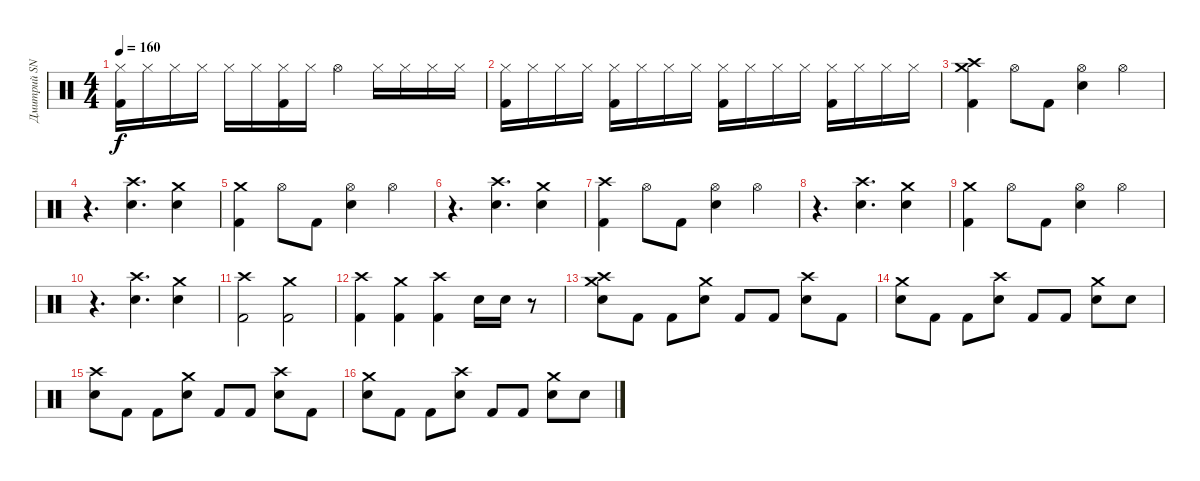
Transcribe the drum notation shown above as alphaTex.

\track ("Дмитрий SNAKE Хакимов" "Дмитрий SN") {instrument percussion}
\staff {score}
\articulation defaults
\ts (4 4)
\tempo 160
\clef neutral
\ks c
("Hi-Hat (closed)" "Kick (hit) 2").16{dy f} "Hi-Hat (closed)".16 "Hi-Hat (closed)".16 "Hi-Hat (closed)".16 "Hi-Hat (closed)".16 "Hi-Hat (closed)".16 ("Hi-Hat (closed)" "Kick (hit) 2").16 "Hi-Hat (closed)".16 "Hi-Hat (open)".4 "Hi-Hat (closed)".16 "Hi-Hat (closed)".16 "Hi-Hat (closed)".16 "Hi-Hat (closed)".16 |
("Hi-Hat (closed)" "Kick (hit) 2").16 "Hi-Hat (closed)".16 "Hi-Hat (closed)".16 "Hi-Hat (closed)".16 ("Hi-Hat (closed)" "Kick (hit) 2").16 "Hi-Hat (closed)".16 "Hi-Hat (closed)".16 "Hi-Hat (closed)".16 ("Hi-Hat (closed)" "Kick (hit) 2").16 "Hi-Hat (closed)".16 "Hi-Hat (closed)".16 "Hi-Hat (closed)".16 ("Hi-Hat (closed)" "Kick (hit) 2").16 "Hi-Hat (closed)".16 "Hi-Hat (closed)".16 "Hi-Hat (closed)".16 |
("Crash high (hit)" "Crash medium (hit)" "Kick (hit) 2").4 "Hi-Hat (open)".8 "Kick (hit) 2".8 ("Hi-Hat (open)" "Snare (hit) 2").4 "Hi-Hat (open)".4 |
r.4{d} ("Crash high (hit)" "Snare (hit) 2").4{d} ("Crash medium (hit)" "Snare (hit) 2").4 |
("Crash medium (hit)" "Kick (hit) 2").4 "Hi-Hat (open)".8 "Kick (hit) 2".8 ("Hi-Hat (open)" "Snare (hit) 2").4 "Hi-Hat (open)".4 |
r.4{d} ("Crash high (hit)" "Snare (hit) 2").4{d} ("Crash medium (hit)" "Snare (hit) 2").4 |
("Crash high (hit)" "Kick (hit) 2").4 "Hi-Hat (open)".8 "Kick (hit) 2".8 ("Hi-Hat (open)" "Snare (hit) 2").4 "Hi-Hat (open)".4 |
r.4{d} ("Crash high (hit)" "Snare (hit) 2").4{d} ("Crash medium (hit)" "Snare (hit) 2").4 |
("Crash medium (hit)" "Kick (hit) 2").4 "Hi-Hat (open)".8 "Kick (hit) 2".8 ("Hi-Hat (open)" "Snare (hit) 2").4 "Hi-Hat (open)".4 |
r.4{d} ("Crash high (hit)" "Snare (hit) 2").4{d} ("Crash medium (hit)" "Snare (hit) 2").4 |
("Crash high (hit)" "Kick (hit) 2").2 ("Crash medium (hit)" "Kick (hit) 2").2 |
("Crash high (hit)" "Kick (hit) 2").4 ("Crash medium (hit)" "Kick (hit) 2").4 ("Crash high (hit)" "Kick (hit) 2").4 "Snare (hit) 2".16 "Snare (hit) 2".16 r.8 |
("Crash high (hit)" "Crash medium (hit)" "Snare (hit) 2").8 "Kick (hit) 2".8 "Kick (hit) 2".8 ("Crash medium (hit)" "Snare (hit) 2").8 "Kick (hit) 2".8 "Kick (hit) 2".8 ("Crash high (hit)" "Snare (hit) 2").8 "Kick (hit) 2".8 |
("Crash medium (hit)" "Snare (hit) 2").8 "Kick (hit) 2".8 "Kick (hit) 2".8 ("Crash high (hit)" "Snare (hit) 2").8 "Kick (hit) 2".8 "Kick (hit) 2".8 ("Crash medium (hit)" "Snare (hit) 2").8 "Snare (hit) 2".8 |
("Crash high (hit)" "Snare (hit) 2").8 "Kick (hit) 2".8 "Kick (hit) 2".8 ("Crash medium (hit)" "Snare (hit) 2").8 "Kick (hit) 2".8 "Kick (hit) 2".8 ("Crash high (hit)" "Snare (hit) 2").8 "Kick (hit) 2".8 |
("Crash medium (hit)" "Snare (hit) 2").8 "Kick (hit) 2".8 "Kick (hit) 2".8 ("Crash high (hit)" "Snare (hit) 2").8 "Kick (hit) 2".8 "Kick (hit) 2".8 ("Crash medium (hit)" "Snare (hit) 2").8 "Snare (hit) 2".8
